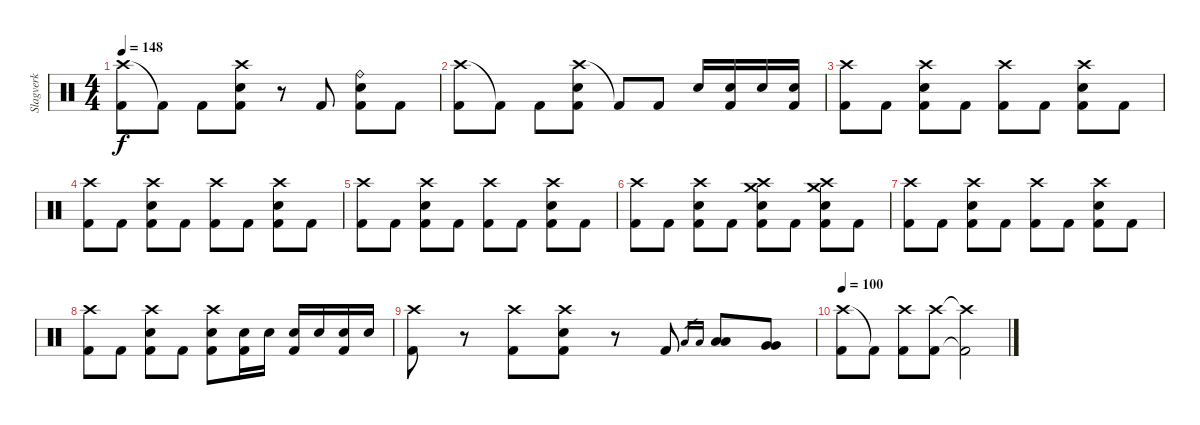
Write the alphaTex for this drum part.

\track ("Slagverk" "Slagverk") {instrument percussion}
\staff {score}
\articulation defaults
\ts (4 4)
\tempo 148
\clef neutral
\ks c
("Crash high (hit)" "Kick (hit) 2").8{dy f} "Kick (hit) 2"{t}.8 "Kick (hit) 2".8 ("Crash high (hit)" "Electric Snare (hit)" "Kick (hit) 2").8 r.8 "Kick (hit) 2".8 ("Ride (bell)" "Electric Snare (hit)" "Kick (hit) 2").8 "Kick (hit) 2".8 |
("Crash high (hit)" "Kick (hit) 2").8 "Kick (hit) 2"{t}.8 "Kick (hit) 2".8 ("Crash high (hit)" "Electric Snare (hit)" "Kick (hit) 2").8 "Kick (hit) 2"{t}.8 "Kick (hit) 2".8 "Electric Snare (hit)".16 ("Electric Snare (hit)" "Kick (hit) 2").16 "Electric Snare (hit)".16 ("Electric Snare (hit)" "Kick (hit) 2").16 |
("Crash high (hit)" "Kick (hit) 2").8 "Kick (hit) 2".8 ("Crash high (hit)" "Electric Snare (hit)" "Kick (hit) 2").8 "Kick (hit) 2".8 ("Crash high (hit)" "Kick (hit) 2").8 "Kick (hit) 2".8 ("Crash high (hit)" "Electric Snare (hit)" "Kick (hit) 2").8 "Kick (hit) 2".8 |
("Crash high (hit)" "Kick (hit) 2").8 "Kick (hit) 2".8 ("Crash high (hit)" "Electric Snare (hit)" "Kick (hit) 2").8 "Kick (hit) 2".8 ("Crash high (hit)" "Kick (hit) 2").8 "Kick (hit) 2".8 ("Crash high (hit)" "Electric Snare (hit)" "Kick (hit) 2").8 "Kick (hit) 2".8 |
("Crash high (hit)" "Kick (hit) 2").8 "Kick (hit) 2".8 ("Crash high (hit)" "Electric Snare (hit)" "Kick (hit) 2").8 "Kick (hit) 2".8 ("Crash high (hit)" "Kick (hit) 2").8 "Kick (hit) 2".8 ("Crash high (hit)" "Electric Snare (hit)" "Kick (hit) 2").8 "Kick (hit) 2".8 |
("Crash high (hit)" "Kick (hit) 2").8 "Kick (hit) 2".8 ("Crash high (hit)" "Electric Snare (hit)" "Kick (hit) 2").8 "Kick (hit) 2".8 ("Crash high (hit)" "Crash medium (hit)" "Electric Snare (hit)" "Kick (hit) 2").8 "Kick (hit) 2".8 ("Crash high (hit)" "Crash medium (hit)" "Electric Snare (hit)" "Kick (hit) 2").8 "Kick (hit) 2".8 |
("Crash high (hit)" "Kick (hit) 2").8 "Kick (hit) 2".8 ("Crash high (hit)" "Electric Snare (hit)" "Kick (hit) 2").8 "Kick (hit) 2".8 ("Crash high (hit)" "Kick (hit) 2").8 "Kick (hit) 2".8 ("Crash high (hit)" "Electric Snare (hit)" "Kick (hit) 2").8 "Kick (hit) 2".8 |
("Crash high (hit)" "Kick (hit) 2").8 "Kick (hit) 2".8 ("Crash high (hit)" "Electric Snare (hit)" "Kick (hit) 2").8 "Kick (hit) 2".8 ("Crash high (hit)" "Electric Snare (hit)" "Kick (hit) 2").8 ("Electric Snare (hit)" "Kick (hit) 2").16 "Electric Snare (hit)".16 ("Electric Snare (hit)" "Kick (hit) 2").16 "Electric Snare (hit)".16 ("Electric Snare (hit)" "Kick (hit) 2").16 "Electric Snare (hit)".16 |
("Crash high (hit)" "Kick (hit) 2").8 r.8 ("Crash high (hit)" "Kick (hit) 2").8 ("Crash high (hit)" "Electric Snare (hit)" "Kick (hit) 2").8 r.8 "Kick (hit) 2".8 "Low Floor Tom (hit)".16{gr} "Low Floor Tom (hit)".16{gr} ("Low Floor Tom (hit)" "Low Floor Tom (hit)").8 ("Very Low Tom (hit)" "Very Low Tom (hit)").8 |
\tempo 100
("Crash high (hit)" "Kick (hit) 2").8 "Kick (hit) 2"{t}.8 ("Crash high (hit)" "Kick (hit) 2").8 ("Crash high (hit)" "Kick (hit) 2").8 ("Crash high (hit)"{t} "Kick (hit) 2"{t}).2
